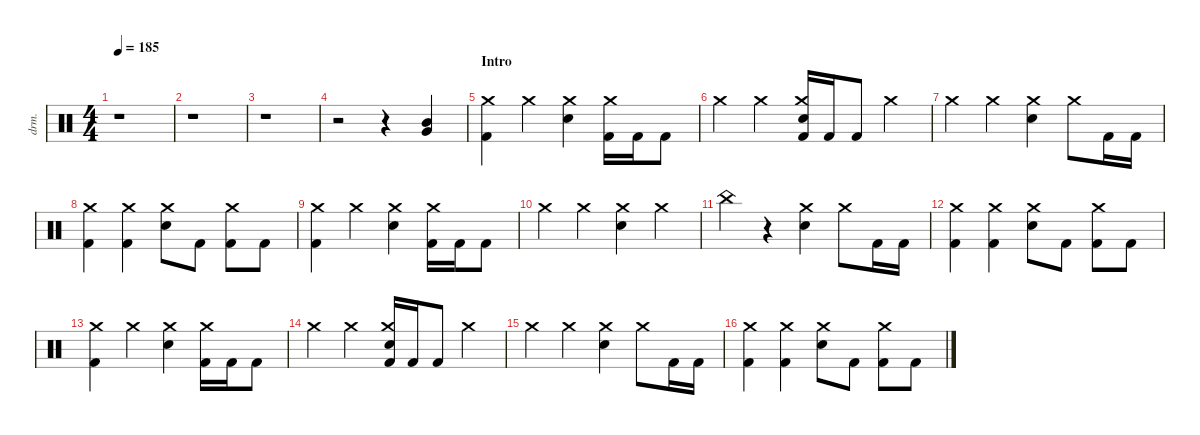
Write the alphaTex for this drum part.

\defaultSystemsLayout 4
\hideDynamics
\bracketExtendMode nobrackets
\track ("Drums - Šimon" "drm.") {instrument percussion}
\staff {score}
\articulation defaults
\ts (4 4)
\tempo 185
\clef neutral
\ks c
r.1{dy ff} |
r.1 |
r.1 |
r.2 r.4 ("Very Low Tom (hit)" "Mid Tom (hit)").4 |
\section ("" "Intro")
("Kick (hit) 2" "Crash medium (hit)").4 "Crash medium (hit)".4 ("Crash medium (hit)" "Snare (hit) 2").4 ("Crash medium (hit)" "Kick (hit) 2").16 "Kick (hit) 2".16 "Kick (hit) 2".8 |
"Crash medium (hit)".4 "Crash medium (hit)".4 ("Crash medium (hit)" "Snare (hit) 2" "Kick (hit) 2").16 "Kick (hit) 2".16 "Kick (hit) 2".8 "Crash medium (hit)".4 |
"Crash medium (hit)".4 "Crash medium (hit)".4 ("Crash medium (hit)" "Snare (hit) 2").4 "Crash medium (hit)".8 "Kick (hit) 2".16 "Kick (hit) 2".16 |
("Crash medium (hit)" "Kick (hit) 2").4 ("Crash medium (hit)" "Kick (hit) 2").4 ("Crash medium (hit)" "Snare (hit) 2").8 "Kick (hit) 2".8 ("Crash medium (hit)" "Kick (hit) 2").8 "Kick (hit) 2".8 |
("Kick (hit) 2" "Crash medium (hit)").4 "Crash medium (hit)".4 ("Crash medium (hit)" "Snare (hit) 2").4 ("Crash medium (hit)" "Kick (hit) 2").16 "Kick (hit) 2".16 "Kick (hit) 2".8 |
"Crash medium (hit)".4 "Crash medium (hit)".4 ("Crash medium (hit)" "Snare (hit) 2").4 "Crash medium (hit)".4 |
"China (hit)".4 r.4 ("Crash medium (hit)" "Snare (hit) 2").4 "Crash medium (hit)".8 "Kick (hit) 2".16 "Kick (hit) 2".16 |
("Crash medium (hit)" "Kick (hit) 2").4 ("Crash medium (hit)" "Kick (hit) 2").4 ("Crash medium (hit)" "Snare (hit) 2").8 "Kick (hit) 2".8 ("Crash medium (hit)" "Kick (hit) 2").8 "Kick (hit) 2".8 |
("Kick (hit) 2" "Crash medium (hit)").4 "Crash medium (hit)".4 ("Crash medium (hit)" "Snare (hit) 2").4 ("Crash medium (hit)" "Kick (hit) 2").16 "Kick (hit) 2".16 "Kick (hit) 2".8 |
"Crash medium (hit)".4 "Crash medium (hit)".4 ("Crash medium (hit)" "Snare (hit) 2" "Kick (hit) 2").16 "Kick (hit) 2".16 "Kick (hit) 2".8 "Crash medium (hit)".4 |
"Crash medium (hit)".4 "Crash medium (hit)".4 ("Crash medium (hit)" "Snare (hit) 2").4 "Crash medium (hit)".8 "Kick (hit) 2".16 "Kick (hit) 2".16 |
("Crash medium (hit)" "Kick (hit) 2").4 ("Crash medium (hit)" "Kick (hit) 2").4 ("Crash medium (hit)" "Snare (hit) 2").8 "Kick (hit) 2".8 ("Crash medium (hit)" "Kick (hit) 2").8 "Kick (hit) 2".8
